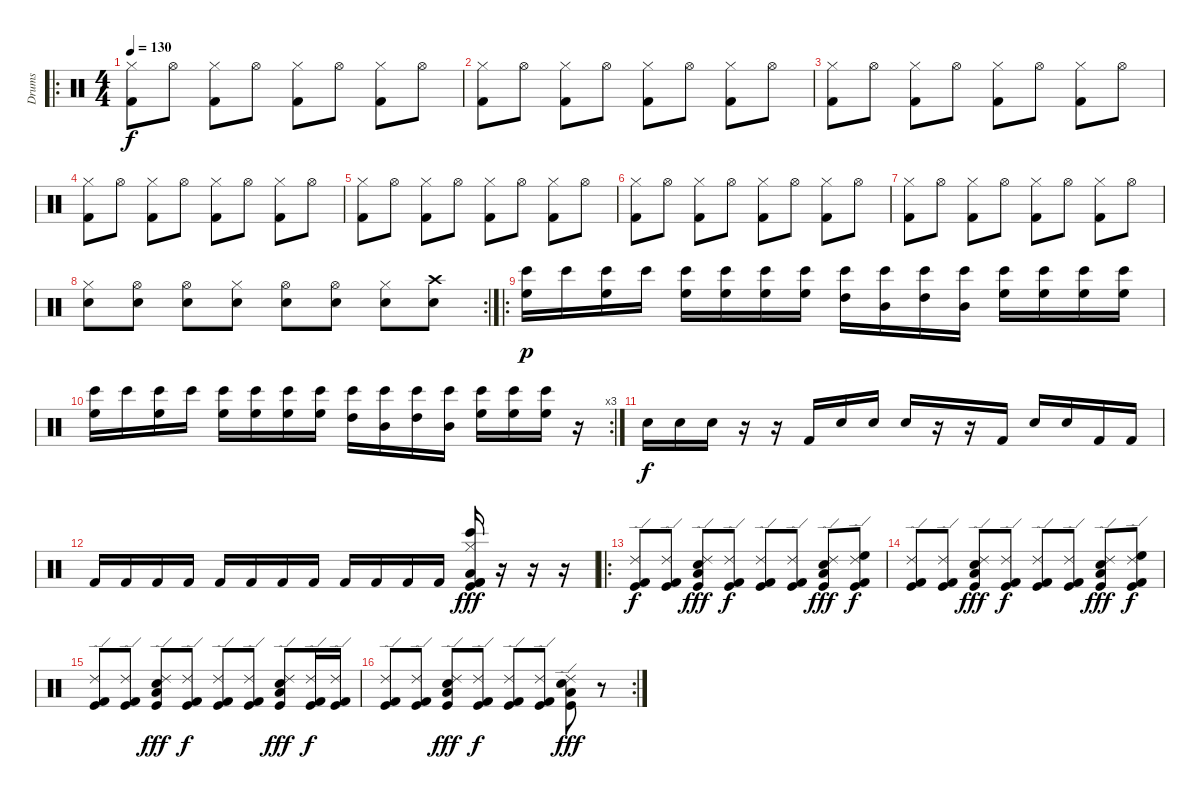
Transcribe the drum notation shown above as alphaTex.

\track ("Drums" "Drums") {instrument percussion}
\staff {score}
\articulation defaults
\ro
\ts (4 4)
\tempo 130
\clef neutral
\ks c
("Kick (hit) 2" "Hi-Hat (closed)").8{dy f} "Hi-Hat (open)".8 ("Kick (hit) 2" "Hi-Hat (closed)").8 "Hi-Hat (open)".8 ("Kick (hit) 2" "Hi-Hat (closed)").8 "Hi-Hat (open)".8 ("Kick (hit) 2" "Hi-Hat (closed)").8 "Hi-Hat (open)".8 |
("Kick (hit) 2" "Hi-Hat (closed)").8 "Hi-Hat (open)".8 ("Kick (hit) 2" "Hi-Hat (closed)").8 "Hi-Hat (open)".8 ("Kick (hit) 2" "Hi-Hat (closed)").8 "Hi-Hat (open)".8 ("Kick (hit) 2" "Hi-Hat (closed)").8 "Hi-Hat (open)".8 |
("Kick (hit) 2" "Hi-Hat (closed)").8 "Hi-Hat (open)".8 ("Kick (hit) 2" "Hi-Hat (closed)").8 "Hi-Hat (open)".8 ("Kick (hit) 2" "Hi-Hat (closed)").8 "Hi-Hat (open)".8 ("Kick (hit) 2" "Hi-Hat (closed)").8 "Hi-Hat (open)".8 |
("Kick (hit) 2" "Hi-Hat (closed)").8 "Hi-Hat (open)".8 ("Kick (hit) 2" "Hi-Hat (closed)").8 "Hi-Hat (open)".8 ("Kick (hit) 2" "Hi-Hat (closed)").8 "Hi-Hat (open)".8 ("Kick (hit) 2" "Hi-Hat (closed)").8 "Hi-Hat (open)".8 |
("Kick (hit) 2" "Hi-Hat (closed)").8 "Hi-Hat (open)".8 ("Kick (hit) 2" "Hi-Hat (closed)").8 "Hi-Hat (open)".8 ("Kick (hit) 2" "Hi-Hat (closed)").8 "Hi-Hat (open)".8 ("Kick (hit) 2" "Hi-Hat (closed)").8 "Hi-Hat (open)".8 |
("Kick (hit) 2" "Hi-Hat (closed)").8 "Hi-Hat (open)".8 ("Kick (hit) 2" "Hi-Hat (closed)").8 "Hi-Hat (open)".8 ("Kick (hit) 2" "Hi-Hat (closed)").8 "Hi-Hat (open)".8 ("Kick (hit) 2" "Hi-Hat (closed)").8 "Hi-Hat (open)".8 |
("Kick (hit) 2" "Hi-Hat (closed)").8 "Hi-Hat (open)".8 ("Kick (hit) 2" "Hi-Hat (closed)").8 "Hi-Hat (open)".8 ("Kick (hit) 2" "Hi-Hat (closed)").8 "Hi-Hat (open)".8 ("Kick (hit) 2" "Hi-Hat (closed)").8 "Hi-Hat (open)".8 |
\rc 2
("Snare (hit) 2" "Hi-Hat (closed)").8 ("Snare (hit) 2" "Hi-Hat (open)").8 ("Snare (hit) 2" "Hi-Hat (open)").8 ("Snare (hit) 2" "Hi-Hat (closed)").8 ("Snare (hit) 2" "Hi-Hat (open)").8 ("Snare (hit) 2" "Hi-Hat (open)").8 ("Snare (hit) 2" "Hi-Hat (closed)").8 ("Snare (hit) 2" "Crash high (hit)").8 |
\ro
("Bongo High (hit)" "High Floor Tom (hit)").16{dy p} "Bongo High (hit)".16 ("Bongo High (hit)" "High Floor Tom (hit)").16 "Bongo High (hit)".16 ("Bongo High (hit)" "High Floor Tom (hit)").16 ("Bongo High (hit)" "High Floor Tom (hit)").16 ("Bongo High (hit)" "High Floor Tom (hit)").16 ("Bongo High (hit)" "High Floor Tom (hit)").16 ("Bongo High (hit)" "High Tom (hit)").16 ("Bongo High (hit)" "Mid Tom (hit)").16 ("Bongo High (hit)" "High Tom (hit)").16 ("Bongo High (hit)" "Mid Tom (hit)").16 ("Bongo High (hit)" "High Floor Tom (hit)").16 ("Bongo High (hit)" "High Floor Tom (hit)").16 ("Bongo High (hit)" "High Floor Tom (hit)").16 ("Bongo High (hit)" "High Floor Tom (hit)").16 |
\rc 3
("Bongo High (hit)" "High Floor Tom (hit)").16 "Bongo High (hit)".16 ("Bongo High (hit)" "High Floor Tom (hit)").16 "Bongo High (hit)".16 ("Bongo High (hit)" "High Floor Tom (hit)").16 ("Bongo High (hit)" "High Floor Tom (hit)").16 ("Bongo High (hit)" "High Floor Tom (hit)").16 ("Bongo High (hit)" "High Floor Tom (hit)").16 ("Bongo High (hit)" "High Tom (hit)").16 ("Bongo High (hit)" "Mid Tom (hit)").16 ("Bongo High (hit)" "High Tom (hit)").16 ("Bongo High (hit)" "Mid Tom (hit)").16 ("Bongo High (hit)" "High Floor Tom (hit)").16 ("Bongo High (hit)" "High Floor Tom (hit)").16 ("Bongo High (hit)" "High Floor Tom (hit)").16 r.16 |
"Electric Snare (hit)".16{dy f} "Electric Snare (hit)".16 "Electric Snare (hit)".16 r.16 r.16 "Kick (hit) 2".16 "Electric Snare (hit)".16 "Electric Snare (hit)".16 "Electric Snare (hit)".16 r.16 r.16 "Kick (hit) 2".16 "Electric Snare (hit)".16 "Electric Snare (hit)".16 "Kick (hit) 2".16 "Kick (hit) 2".16 |
"Kick (hit) 2".16 "Kick (hit) 2".16 "Kick (hit) 2".16 "Kick (hit) 2".16 "Kick (hit) 2".16 "Kick (hit) 2".16 "Kick (hit) 2".16 "Kick (hit) 2".16 "Kick (hit) 2".16 "Kick (hit) 2".16 "Kick (hit) 2".16 "Kick (hit) 2".16 ("Low Floor Tom (hit)" "Kick (hit)" "Kick (hit) 2" "Bongo High (hit)" "Hi-Hat (closed)" "Kick (hit) 2").16{dy fff} r.16 r.16 r.16 |
\ro
("Ride (edge) 2" "Kick (hit)" "Kick (hit) 2").8{dy f} ("Ride (edge) 2" "Kick (hit)" "Kick (hit) 2").8 ("Ride (edge) 2" "Low Floor Tom (hit)" "Kick (hit)" "Snare (hit) 2").8{dy fff} ("Ride (edge) 2" "Kick (hit)" "Kick (hit) 2").8{dy f} ("Ride (edge) 2" "Kick (hit)" "Kick (hit) 2").8 ("Ride (edge) 2" "Kick (hit)" "Kick (hit) 2").8 ("Ride (edge) 2" "Low Floor Tom (hit)" "Kick (hit)" "Snare (hit) 2").8{dy fff} ("Ride (edge) 2" "High Floor Tom (hit)" "Kick (hit)" "Kick (hit) 2").8{dy f} |
("Ride (edge) 2" "Kick (hit)" "Kick (hit) 2").8 ("Ride (edge) 2" "Kick (hit)" "Kick (hit) 2").8 ("Ride (edge) 2" "Low Floor Tom (hit)" "Kick (hit)" "Snare (hit) 2").8{dy fff} ("Ride (edge) 2" "Kick (hit)" "Kick (hit) 2").8{dy f} ("Ride (edge) 2" "Kick (hit)" "Kick (hit) 2").8 ("Ride (edge) 2" "Kick (hit)" "Kick (hit) 2").8 ("Ride (edge) 2" "Low Floor Tom (hit)" "Kick (hit)" "Snare (hit) 2").8{dy fff} ("Ride (edge) 2" "High Floor Tom (hit)" "Kick (hit)" "Kick (hit) 2").8{dy f} |
("Ride (edge) 2" "Kick (hit)" "Kick (hit) 2").8 ("Ride (edge) 2" "Kick (hit)" "Kick (hit) 2").8 ("Ride (edge) 2" "Low Floor Tom (hit)" "Kick (hit)" "Snare (hit) 2").8{dy fff} ("Ride (edge) 2" "Kick (hit)" "Kick (hit) 2").8{dy f} ("Ride (edge) 2" "Kick (hit)" "Kick (hit) 2").8 ("Ride (edge) 2" "Kick (hit)" "Kick (hit) 2").8 ("Ride (edge) 2" "Low Floor Tom (hit)" "Kick (hit)" "Snare (hit) 2").8{dy fff} ("Ride (edge) 2" "Kick (hit)" "Kick (hit) 2").16{dy f} ("Ride (edge) 2" "Kick (hit)" "Kick (hit) 2").16 |
\rc 2
("Ride (edge) 2" "Kick (hit)" "Kick (hit) 2").8 ("Ride (edge) 2" "Kick (hit)" "Kick (hit) 2").8 ("Ride (edge) 2" "Low Floor Tom (hit)" "Kick (hit)" "Snare (hit) 2").8{dy fff} ("Ride (edge) 2" "Kick (hit)" "Kick (hit) 2").8{dy f} ("Ride (edge) 2" "Kick (hit)" "Kick (hit) 2").8 ("Ride (edge) 2" "Kick (hit)" "Kick (hit) 2").8 ("Ride (edge) 2" "Low Floor Tom (hit)" "Kick (hit)" "Snare (hit) 2").8{dy fff} r.8
